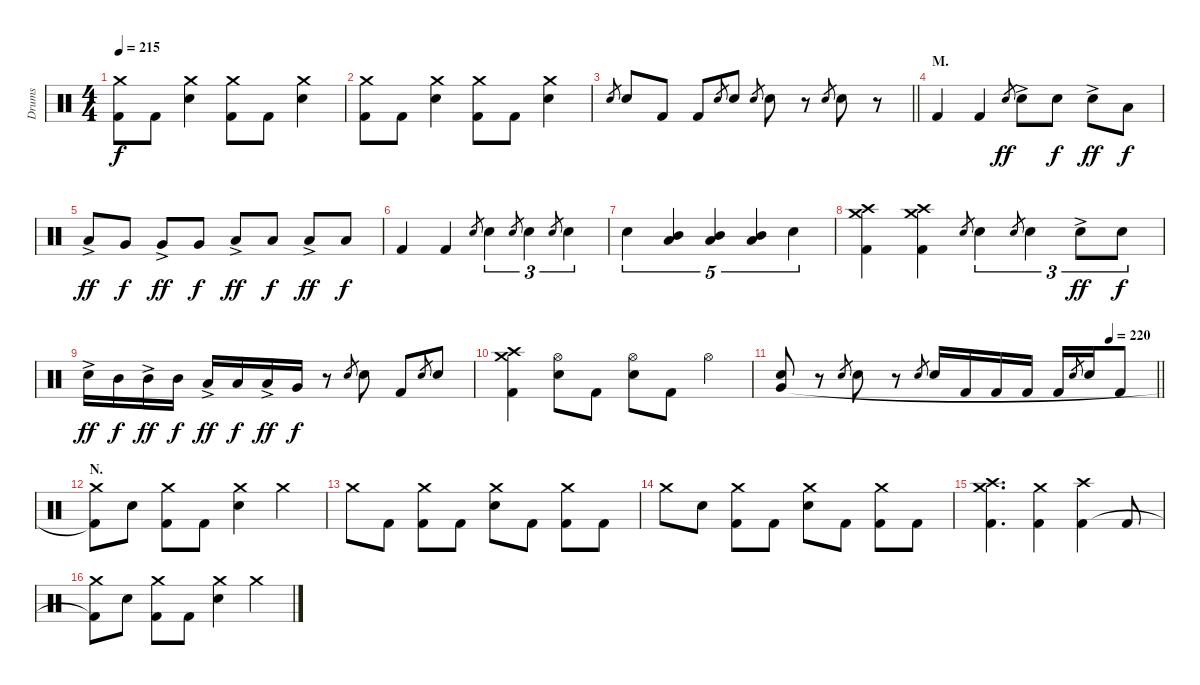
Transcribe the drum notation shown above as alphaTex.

\track ("Drums" "Drums") {instrument percussion}
\staff {score}
\articulation defaults
\ts (4 4)
\tempo 215
\clef neutral
\ks c
("Crash medium (hit)" "Kick (hit) 2").8{dy f} "Kick (hit) 2".8 ("Crash medium (hit)" "Electric Snare (hit)").4 ("Crash medium (hit)" "Kick (hit) 2").8 "Kick (hit) 2".8 ("Crash medium (hit)" "Electric Snare (hit)").4 |
("Crash medium (hit)" "Kick (hit) 2").8 "Kick (hit) 2".8 ("Crash medium (hit)" "Electric Snare (hit)").4 ("Crash medium (hit)" "Kick (hit) 2").8 "Kick (hit) 2".8 ("Crash medium (hit)" "Electric Snare (hit)").4 |
\barLineRight lightlight "Electric Snare (hit)".8{gr} "Electric Snare (hit)".8 "Kick (hit) 2".8 "Kick (hit) 2".8 "Electric Snare (hit)".8{gr} "Electric Snare (hit)".8 "Electric Snare (hit)".8{gr} "Electric Snare (hit)".8
r.8 "Electric Snare (hit)".8{gr} "Electric Snare (hit)".8 r.8 |
\section ("" "M.")
"Kick (hit) 2".4 "Kick (hit) 2".4 "Electric Snare (hit)".8{gr dy ff} "Electric Snare (hit)"{ac}.8 "Electric Snare (hit)".8{dy f} "Electric Snare (hit)"{ac}.8{dy ff} "Low Tom (hit)".8{dy f} |
"Low Tom (hit)"{ac}.8{dy ff} "Very Low Tom (hit)".8{dy f} "Very Low Tom (hit)"{ac}.8{dy ff} "Very Low Tom (hit)".8{dy f} "Low Floor Tom (hit)"{ac}.8{dy ff} "Low Floor Tom (hit)".8{dy f} "Low Floor Tom (hit)"{ac}.8{dy ff} "Low Floor Tom (hit)".8{dy f} |
"Kick (hit) 2".4 "Kick (hit) 2".4 "Electric Snare (hit)".8{gr} "Electric Snare (hit)".4{tu (3 2)} "Electric Snare (hit)".8{gr} "Electric Snare (hit)".4{tu (3 2)} "Electric Snare (hit)".8{gr} "Electric Snare (hit)".4{tu (3 2)} |
"Electric Snare (hit)".4{tu (5 4)} ("Mid Tom (hit)" "Low Tom (hit)").4{tu (5 4) bu 120} ("Mid Tom (hit)" "Low Tom (hit)").4{tu (5 4) bu 120} ("Mid Tom (hit)" "Low Tom (hit)").4{tu (5 4) bu 120} "Electric Snare (hit)".4{tu (5 4)} |
("Crash medium (hit)" "Crash high (hit)" "Kick (hit) 2").4 ("Crash medium (hit)" "Crash high (hit)" "Kick (hit) 2").4 "Electric Snare (hit)".8{gr} "Electric Snare (hit)".4{tu (3 2)} "Electric Snare (hit)".8{gr} "Electric Snare (hit)".4{tu (3 2)} "Electric Snare (hit)"{ac}.8{tu (3 2) dy ff} "Electric Snare (hit)".8{tu (3 2) dy f} |
"Electric Snare (hit)"{ac}.16{dy ff} "Mid Tom (hit)".16{dy f} "Mid Tom (hit)"{ac}.16{dy ff} "Mid Tom (hit)".16{dy f} "Low Tom (hit)"{ac}.16{dy ff} "Low Tom (hit)".16{dy f} "Low Tom (hit)"{ac}.16{dy ff} "Very Low Tom (hit)".16{dy f} r.8 "Electric Snare (hit)".8{gr} "Electric Snare (hit)".8 "Kick (hit) 2".8 "Electric Snare (hit)".8{gr} "Electric Snare (hit)".8 |
("Crash medium (hit)" "Crash high (hit)" "Kick (hit) 2").4 ("Hi-Hat (open)" "Electric Snare (hit)").8 "Kick (hit) 2".8 ("Hi-Hat (open)" "Electric Snare (hit)").8 "Kick (hit) 2".8 "Hi-Hat (open)".4 |
\tempo (220 0.875)
\barLineRight lightlight
("Electric Snare (hit)" "Very Low Tom (hit)").8{bu 120} r.8 "Electric Snare (hit)".8{gr} "Electric Snare (hit)".8 r.8 "Electric Snare (hit)".8{gr} "Electric Snare (hit)".16 "Kick (hit) 2".16 "Kick (hit) 2".16 "Kick (hit) 2".16 "Kick (hit) 2".16 "Electric Snare (hit)".8{gr} "Electric Snare (hit)".16 "Kick (hit) 2".8 |
\section ("" "N.")
("Crash medium (hit)" "Kick (hit) 2"{t}).8 "Electric Snare (hit)".8 ("Crash medium (hit)" "Kick (hit) 2").8 "Kick (hit) 2".8 ("Crash medium (hit)" "Electric Snare (hit)").4 "Crash medium (hit)".4 |
"Crash medium (hit)".8 "Kick (hit) 2".8 ("Crash medium (hit)" "Kick (hit) 2").8 "Kick (hit) 2".8 ("Crash medium (hit)" "Electric Snare (hit)").8 "Kick (hit) 2".8 ("Crash medium (hit)" "Kick (hit) 2").8 "Kick (hit) 2".8 |
"Crash medium (hit)".8 "Electric Snare (hit)".8 ("Crash medium (hit)" "Kick (hit) 2").8 "Kick (hit) 2".8 ("Crash medium (hit)" "Electric Snare (hit)").8 "Kick (hit) 2".8 ("Crash medium (hit)" "Kick (hit) 2").8 "Kick (hit) 2".8 |
("Crash medium (hit)" "Crash high (hit)" "Kick (hit) 2").4{d} ("Crash medium (hit)" "Kick (hit) 2").4 ("Crash high (hit)" "Kick (hit) 2").4 "Kick (hit) 2".8 |
("Crash medium (hit)" "Kick (hit) 2"{t}).8 "Electric Snare (hit)".8 ("Crash medium (hit)" "Kick (hit) 2").8 "Kick (hit) 2".8 ("Crash medium (hit)" "Electric Snare (hit)").4 "Crash medium (hit)".4
